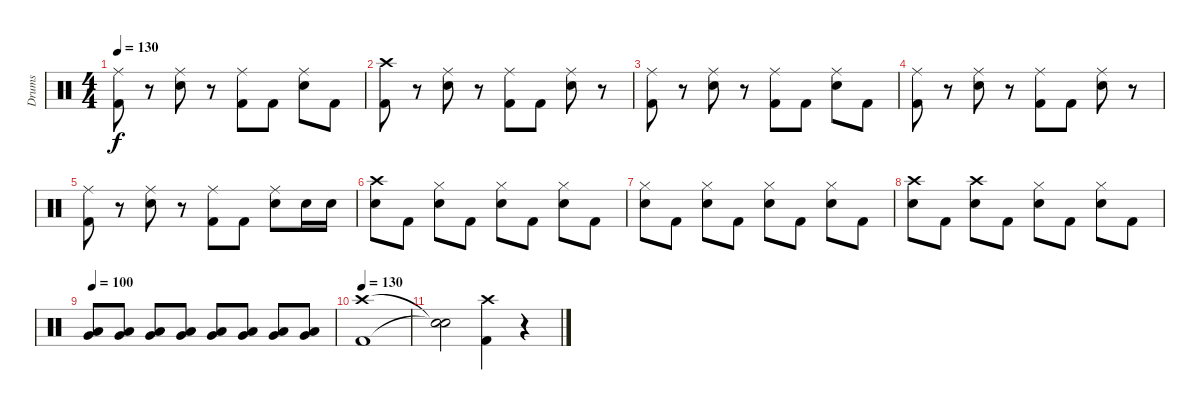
\track ("Drums" "Drums") {instrument percussion}
\staff {score}
\articulation defaults
\ts (4 4)
\tempo 130
\clef neutral
\ks c
("Ride (middle)" "Kick (hit) 2").8{dy f} r.8 ("Ride (middle)" "Electric Snare (hit)").8 r.8 ("Ride (middle)" "Kick (hit) 2").8 "Kick (hit) 2".8 ("Ride (middle)" "Electric Snare (hit)").8 "Kick (hit) 2".8 |
("Crash high (hit)" "Kick (hit) 2").8 r.8 ("Ride (middle)" "Electric Snare (hit)").8 r.8 ("Ride (middle)" "Kick (hit) 2").8 "Kick (hit) 2".8 ("Ride (middle)" "Electric Snare (hit)").8 r.8 |
("Ride (middle)" "Kick (hit) 2").8 r.8 ("Ride (middle)" "Electric Snare (hit)").8 r.8 ("Ride (middle)" "Kick (hit) 2").8 "Kick (hit) 2".8 ("Ride (middle)" "Electric Snare (hit)").8 "Kick (hit) 2".8 |
("Ride (middle)" "Kick (hit) 2").8 r.8 ("Ride (middle)" "Electric Snare (hit)").8 r.8 ("Ride (middle)" "Kick (hit) 2").8 "Kick (hit) 2".8 ("Ride (middle)" "Electric Snare (hit)").8 r.8 |
("Ride (middle)" "Kick (hit) 2").8 r.8 ("Ride (middle)" "Electric Snare (hit)").8 r.8 ("Ride (middle)" "Kick (hit) 2").8 "Kick (hit) 2".8 ("Ride (middle)" "Electric Snare (hit)").8 "Electric Snare (hit)".16 "Electric Snare (hit)".16 |
("Crash high (hit)" "Electric Snare (hit)").8 "Kick (hit) 2".8 ("Hi-Hat (closed)" "Electric Snare (hit)").8 "Kick (hit) 2".8 ("Hi-Hat (closed)" "Electric Snare (hit)").8 "Kick (hit) 2".8 ("Hi-Hat (closed)" "Electric Snare (hit)").8 "Kick (hit) 2".8 |
("Hi-Hat (closed)" "Electric Snare (hit)").8 "Kick (hit) 2".8 ("Hi-Hat (closed)" "Electric Snare (hit)").8 "Kick (hit) 2".8 ("Hi-Hat (closed)" "Electric Snare (hit)").8 "Kick (hit) 2".8 ("Hi-Hat (closed)" "Electric Snare (hit)").8 "Kick (hit) 2".8 |
("Crash high (hit)" "Electric Snare (hit)").8 "Kick (hit) 2".8 ("Crash high (hit)" "Electric Snare (hit)").8 "Kick (hit) 2".8 ("Hi-Hat (closed)" "Electric Snare (hit)").8 "Kick (hit) 2".8 ("Hi-Hat (closed)" "Electric Snare (hit)").8 "Kick (hit) 2".8 |
\tempo 100
("Very Low Tom (hit)" "Low Tom (hit)").8 ("Very Low Tom (hit)" "Low Tom (hit)").8 ("Very Low Tom (hit)" "Low Tom (hit)").8 ("Very Low Tom (hit)" "Low Tom (hit)").8 ("Very Low Tom (hit)" "Low Tom (hit)").8 ("Very Low Tom (hit)" "Low Tom (hit)").8 ("Very Low Tom (hit)" "Low Tom (hit)").8 ("Very Low Tom (hit)" "Low Tom (hit)").8 |
\tempo 130
("Crash high (hit)" "Kick (hit) 2").1 |
("Snare (hit)"{t} "Snare (hit)"{t}).2 ("Crash high (hit)" "Kick (hit) 2").4 r.4
